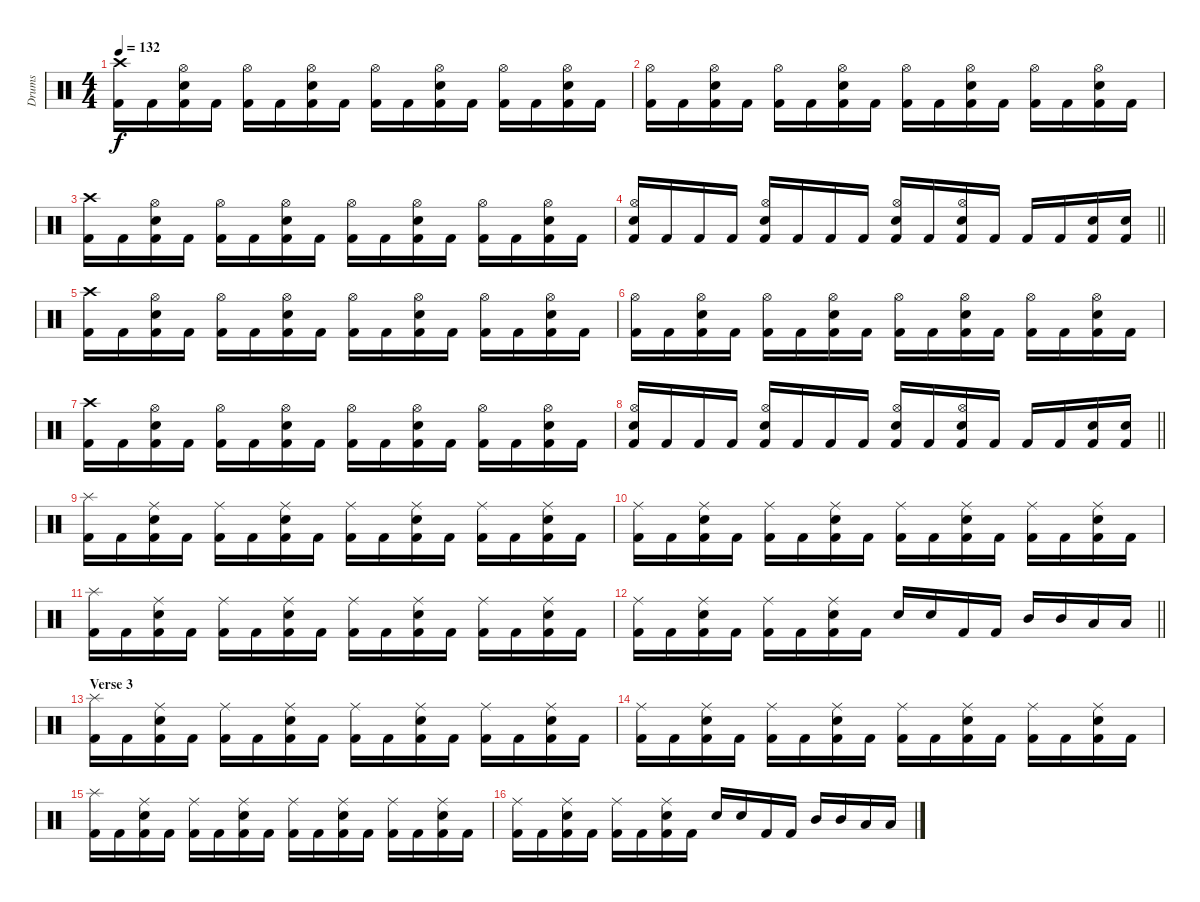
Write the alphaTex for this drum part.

\track ("Drums" "Drums") {instrument percussion}
\staff {score}
\articulation defaults
\ts (4 4)
\tempo 132
\clef neutral
\ks c
("Crash high (hit)" "Kick (hit) 2").16{dy f} "Kick (hit) 2".16 ("Hi-Hat (open)" "Electric Snare (hit)" "Kick (hit) 2").16 "Kick (hit) 2".16 ("Hi-Hat (open)" "Kick (hit) 2").16 "Kick (hit) 2".16 ("Hi-Hat (open)" "Electric Snare (hit)" "Kick (hit) 2").16 "Kick (hit) 2".16 ("Hi-Hat (open)" "Kick (hit) 2").16 "Kick (hit) 2".16 ("Hi-Hat (open)" "Electric Snare (hit)" "Kick (hit) 2").16 "Kick (hit) 2".16 ("Hi-Hat (open)" "Kick (hit) 2").16 "Kick (hit) 2".16 ("Hi-Hat (open)" "Electric Snare (hit)" "Kick (hit) 2").16 "Kick (hit) 2".16 |
("Hi-Hat (open)" "Kick (hit) 2").16 "Kick (hit) 2".16 ("Hi-Hat (open)" "Electric Snare (hit)" "Kick (hit) 2").16 "Kick (hit) 2".16 ("Hi-Hat (open)" "Kick (hit) 2").16 "Kick (hit) 2".16 ("Hi-Hat (open)" "Electric Snare (hit)" "Kick (hit) 2").16 "Kick (hit) 2".16 ("Hi-Hat (open)" "Kick (hit) 2").16 "Kick (hit) 2".16 ("Hi-Hat (open)" "Electric Snare (hit)" "Kick (hit) 2").16 "Kick (hit) 2".16 ("Hi-Hat (open)" "Kick (hit) 2").16 "Kick (hit) 2".16 ("Hi-Hat (open)" "Electric Snare (hit)" "Kick (hit) 2").16 "Kick (hit) 2".16 |
("Crash high (hit)" "Kick (hit) 2").16 "Kick (hit) 2".16 ("Hi-Hat (open)" "Electric Snare (hit)" "Kick (hit) 2").16 "Kick (hit) 2".16 ("Hi-Hat (open)" "Kick (hit) 2").16 "Kick (hit) 2".16 ("Hi-Hat (open)" "Electric Snare (hit)" "Kick (hit) 2").16 "Kick (hit) 2".16 ("Hi-Hat (open)" "Kick (hit) 2").16 "Kick (hit) 2".16 ("Hi-Hat (open)" "Electric Snare (hit)" "Kick (hit) 2").16 "Kick (hit) 2".16 ("Hi-Hat (open)" "Kick (hit) 2").16 "Kick (hit) 2".16 ("Hi-Hat (open)" "Electric Snare (hit)" "Kick (hit) 2").16 "Kick (hit) 2".16 |
\barLineRight lightlight
("Hi-Hat (open)" "Electric Snare (hit)" "Kick (hit) 2").16 "Kick (hit) 2".16 "Kick (hit) 2".16 "Kick (hit) 2".16 ("Hi-Hat (open)" "Electric Snare (hit)" "Kick (hit) 2").16 "Kick (hit) 2".16 "Kick (hit) 2".16 "Kick (hit) 2".16 ("Hi-Hat (open)" "Electric Snare (hit)" "Kick (hit) 2").16 "Kick (hit) 2".16 ("Hi-Hat (open)" "Electric Snare (hit)" "Kick (hit) 2").16 "Kick (hit) 2".16 "Kick (hit) 2".16 "Kick (hit) 2".16 ("Electric Snare (hit)" "Kick (hit) 2").16 ("Electric Snare (hit)" "Kick (hit) 2").16 |
("Crash high (hit)" "Kick (hit) 2").16 "Kick (hit) 2".16 ("Hi-Hat (open)" "Electric Snare (hit)" "Kick (hit) 2").16 "Kick (hit) 2".16 ("Hi-Hat (open)" "Kick (hit) 2").16 "Kick (hit) 2".16 ("Hi-Hat (open)" "Electric Snare (hit)" "Kick (hit) 2").16 "Kick (hit) 2".16 ("Hi-Hat (open)" "Kick (hit) 2").16 "Kick (hit) 2".16 ("Hi-Hat (open)" "Electric Snare (hit)" "Kick (hit) 2").16 "Kick (hit) 2".16 ("Hi-Hat (open)" "Kick (hit) 2").16 "Kick (hit) 2".16 ("Hi-Hat (open)" "Electric Snare (hit)" "Kick (hit) 2").16 "Kick (hit) 2".16 |
("Hi-Hat (open)" "Kick (hit) 2").16 "Kick (hit) 2".16 ("Hi-Hat (open)" "Electric Snare (hit)" "Kick (hit) 2").16 "Kick (hit) 2".16 ("Hi-Hat (open)" "Kick (hit) 2").16 "Kick (hit) 2".16 ("Hi-Hat (open)" "Electric Snare (hit)" "Kick (hit) 2").16 "Kick (hit) 2".16 ("Hi-Hat (open)" "Kick (hit) 2").16 "Kick (hit) 2".16 ("Hi-Hat (open)" "Electric Snare (hit)" "Kick (hit) 2").16 "Kick (hit) 2".16 ("Hi-Hat (open)" "Kick (hit) 2").16 "Kick (hit) 2".16 ("Hi-Hat (open)" "Electric Snare (hit)" "Kick (hit) 2").16 "Kick (hit) 2".16 |
("Crash high (hit)" "Kick (hit) 2").16 "Kick (hit) 2".16 ("Hi-Hat (open)" "Electric Snare (hit)" "Kick (hit) 2").16 "Kick (hit) 2".16 ("Hi-Hat (open)" "Kick (hit) 2").16 "Kick (hit) 2".16 ("Hi-Hat (open)" "Electric Snare (hit)" "Kick (hit) 2").16 "Kick (hit) 2".16 ("Hi-Hat (open)" "Kick (hit) 2").16 "Kick (hit) 2".16 ("Hi-Hat (open)" "Electric Snare (hit)" "Kick (hit) 2").16 "Kick (hit) 2".16 ("Hi-Hat (open)" "Kick (hit) 2").16 "Kick (hit) 2".16 ("Hi-Hat (open)" "Electric Snare (hit)" "Kick (hit) 2").16 "Kick (hit) 2".16 |
\barLineRight lightlight
("Hi-Hat (open)" "Electric Snare (hit)" "Kick (hit) 2").16 "Kick (hit) 2".16 "Kick (hit) 2".16 "Kick (hit) 2".16 ("Hi-Hat (open)" "Electric Snare (hit)" "Kick (hit) 2").16 "Kick (hit) 2".16 "Kick (hit) 2".16 "Kick (hit) 2".16 ("Hi-Hat (open)" "Electric Snare (hit)" "Kick (hit) 2").16 "Kick (hit) 2".16 ("Hi-Hat (open)" "Electric Snare (hit)" "Kick (hit) 2").16 "Kick (hit) 2".16 "Kick (hit) 2".16 "Kick (hit) 2".16 ("Electric Snare (hit)" "Kick (hit) 2").16 ("Electric Snare (hit)" "Kick (hit) 2").16 |
("Splash (hit)" "Kick (hit) 2").16 "Kick (hit) 2".16 ("Ride (middle)" "Electric Snare (hit)" "Kick (hit) 2").16 "Kick (hit) 2".16 ("Ride (middle)" "Kick (hit) 2").16 "Kick (hit) 2".16 ("Ride (middle)" "Electric Snare (hit)" "Kick (hit) 2").16 "Kick (hit) 2".16 ("Ride (middle)" "Kick (hit) 2").16 "Kick (hit) 2".16 ("Ride (middle)" "Electric Snare (hit)" "Kick (hit) 2").16 "Kick (hit) 2".16 ("Ride (middle)" "Kick (hit) 2").16 "Kick (hit) 2".16 ("Ride (middle)" "Electric Snare (hit)" "Kick (hit) 2").16 "Kick (hit) 2".16 |
("Ride (middle)" "Kick (hit) 2").16 "Kick (hit) 2".16 ("Ride (middle)" "Electric Snare (hit)" "Kick (hit) 2").16 "Kick (hit) 2".16 ("Ride (middle)" "Kick (hit) 2").16 "Kick (hit) 2".16 ("Ride (middle)" "Electric Snare (hit)" "Kick (hit) 2").16 "Kick (hit) 2".16 ("Ride (middle)" "Kick (hit) 2").16 "Kick (hit) 2".16 ("Ride (middle)" "Electric Snare (hit)" "Kick (hit) 2").16 "Kick (hit) 2".16 ("Ride (middle)" "Kick (hit) 2").16 "Kick (hit) 2".16 ("Ride (middle)" "Electric Snare (hit)" "Kick (hit) 2").16 "Kick (hit) 2".16 |
("Splash (hit)" "Kick (hit) 2").16 "Kick (hit) 2".16 ("Ride (middle)" "Electric Snare (hit)" "Kick (hit) 2").16 "Kick (hit) 2".16 ("Ride (middle)" "Kick (hit) 2").16 "Kick (hit) 2".16 ("Ride (middle)" "Electric Snare (hit)" "Kick (hit) 2").16 "Kick (hit) 2".16 ("Ride (middle)" "Kick (hit) 2").16 "Kick (hit) 2".16 ("Ride (middle)" "Electric Snare (hit)" "Kick (hit) 2").16 "Kick (hit) 2".16 ("Ride (middle)" "Kick (hit) 2").16 "Kick (hit) 2".16 ("Ride (middle)" "Electric Snare (hit)" "Kick (hit) 2").16 "Kick (hit) 2".16 |
\barLineRight lightlight
("Ride (middle)" "Kick (hit) 2").16 "Kick (hit) 2".16 ("Ride (middle)" "Electric Snare (hit)" "Kick (hit) 2").16 "Kick (hit) 2".16 ("Ride (middle)" "Kick (hit) 2").16 "Kick (hit) 2".16 ("Ride (middle)" "Electric Snare (hit)" "Kick (hit) 2").16 "Kick (hit) 2".16 "Electric Snare (hit)".16 "Electric Snare (hit)".16 "Kick (hit) 2".16 "Kick (hit) 2".16 "Mid Tom (hit)".16 "Mid Tom (hit)".16 "Low Tom (hit)".16 "Low Tom (hit)".16 |
\section ("" "Verse 3")
("Splash (hit)" "Kick (hit) 2").16 "Kick (hit) 2".16 ("Ride (middle)" "Electric Snare (hit)" "Kick (hit) 2").16 "Kick (hit) 2".16 ("Ride (middle)" "Kick (hit) 2").16 "Kick (hit) 2".16 ("Ride (middle)" "Electric Snare (hit)" "Kick (hit) 2").16 "Kick (hit) 2".16 ("Ride (middle)" "Kick (hit) 2").16 "Kick (hit) 2".16 ("Ride (middle)" "Electric Snare (hit)" "Kick (hit) 2").16 "Kick (hit) 2".16 ("Ride (middle)" "Kick (hit) 2").16 "Kick (hit) 2".16 ("Ride (middle)" "Electric Snare (hit)" "Kick (hit) 2").16 "Kick (hit) 2".16 |
("Ride (middle)" "Kick (hit) 2").16 "Kick (hit) 2".16 ("Ride (middle)" "Electric Snare (hit)" "Kick (hit) 2").16 "Kick (hit) 2".16 ("Ride (middle)" "Kick (hit) 2").16 "Kick (hit) 2".16 ("Ride (middle)" "Electric Snare (hit)" "Kick (hit) 2").16 "Kick (hit) 2".16 ("Ride (middle)" "Kick (hit) 2").16 "Kick (hit) 2".16 ("Ride (middle)" "Electric Snare (hit)" "Kick (hit) 2").16 "Kick (hit) 2".16 ("Ride (middle)" "Kick (hit) 2").16 "Kick (hit) 2".16 ("Ride (middle)" "Electric Snare (hit)" "Kick (hit) 2").16 "Kick (hit) 2".16 |
("Splash (hit)" "Kick (hit) 2").16 "Kick (hit) 2".16 ("Ride (middle)" "Electric Snare (hit)" "Kick (hit) 2").16 "Kick (hit) 2".16 ("Ride (middle)" "Kick (hit) 2").16 "Kick (hit) 2".16 ("Ride (middle)" "Electric Snare (hit)" "Kick (hit) 2").16 "Kick (hit) 2".16 ("Ride (middle)" "Kick (hit) 2").16 "Kick (hit) 2".16 ("Ride (middle)" "Electric Snare (hit)" "Kick (hit) 2").16 "Kick (hit) 2".16 ("Ride (middle)" "Kick (hit) 2").16 "Kick (hit) 2".16 ("Ride (middle)" "Electric Snare (hit)" "Kick (hit) 2").16 "Kick (hit) 2".16 |
("Ride (middle)" "Kick (hit) 2").16 "Kick (hit) 2".16 ("Ride (middle)" "Electric Snare (hit)" "Kick (hit) 2").16 "Kick (hit) 2".16 ("Ride (middle)" "Kick (hit) 2").16 "Kick (hit) 2".16 ("Ride (middle)" "Electric Snare (hit)" "Kick (hit) 2").16 "Kick (hit) 2".16 "Electric Snare (hit)".16 "Electric Snare (hit)".16 "Kick (hit) 2".16 "Kick (hit) 2".16 "Mid Tom (hit)".16 "Mid Tom (hit)".16 "Low Tom (hit)".16 "Low Tom (hit)".16
